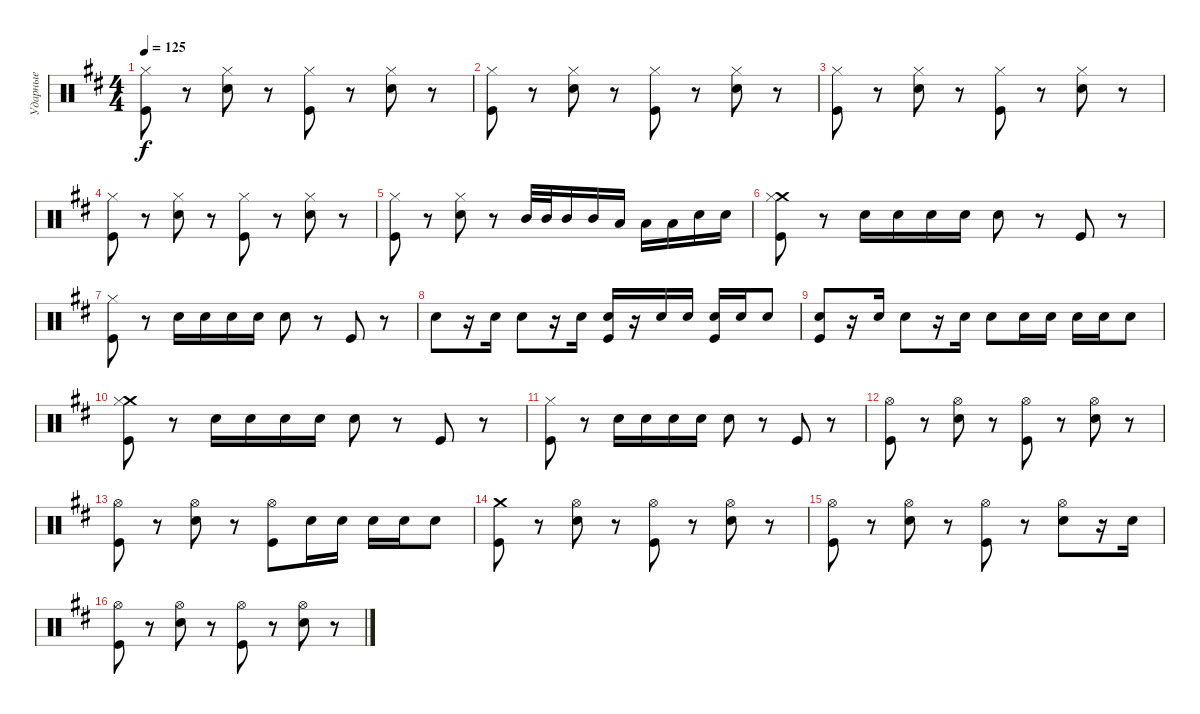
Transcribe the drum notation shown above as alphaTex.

\track ("Ударные" "Ударные") {instrument percussion}
\staff {score}
\articulation defaults
\ts (4 4)
\tempo 125
\clef neutral
\ks d
("Hi-Hat (closed)" "Kick (hit)").8{dy f} r.8 ("Hi-Hat (closed)" "Electric Snare (hit)").8 r.8 ("Hi-Hat (closed)" "Kick (hit)").8 r.8 ("Hi-Hat (closed)" "Electric Snare (hit)").8 r.8 |
("Hi-Hat (closed)" "Kick (hit)").8 r.8 ("Hi-Hat (closed)" "Electric Snare (hit)").8 r.8 ("Hi-Hat (closed)" "Kick (hit)").8 r.8 ("Hi-Hat (closed)" "Electric Snare (hit)").8 r.8 |
("Hi-Hat (closed)" "Kick (hit)").8 r.8 ("Hi-Hat (closed)" "Electric Snare (hit)").8 r.8 ("Hi-Hat (closed)" "Kick (hit)").8 r.8 ("Hi-Hat (closed)" "Electric Snare (hit)").8 r.8 |
("Hi-Hat (closed)" "Kick (hit)").8 r.8 ("Hi-Hat (closed)" "Electric Snare (hit)").8 r.8 ("Hi-Hat (closed)" "Kick (hit)").8 r.8 ("Hi-Hat (closed)" "Electric Snare (hit)").8 r.8 |
("Hi-Hat (closed)" "Kick (hit)").8 r.8 ("Hi-Hat (closed)" "Electric Snare (hit)").8 r.8 "Mid Tom (hit)".32 "Mid Tom (hit)".32 "Mid Tom (hit)".16 "Mid Tom (hit)".16 "Low Tom (hit)".16 "Low Tom (hit)".16 "Low Tom (hit)".16 "Electric Snare (hit)".16 "Electric Snare (hit)".16 |
("Crash medium (hit)" "Hi-Hat (closed)" "Kick (hit)").8 r.8 "Electric Snare (hit)".16 "Electric Snare (hit)".16 "Electric Snare (hit)".16 "Electric Snare (hit)".16 "Electric Snare (hit)".8 r.8 "Kick (hit)".8 r.8 |
("Hi-Hat (closed)" "Kick (hit)").8 r.8 "Electric Snare (hit)".16 "Electric Snare (hit)".16 "Electric Snare (hit)".16 "Electric Snare (hit)".16 "Electric Snare (hit)".8 r.8 "Kick (hit)".8 r.8 |
"Electric Snare (hit)".8 r.16 "Electric Snare (hit)".16 "Electric Snare (hit)".8 r.16 "Electric Snare (hit)".16 ("Electric Snare (hit)" "Kick (hit)").16 r.16 "Electric Snare (hit)".16 "Electric Snare (hit)".16 ("Electric Snare (hit)" "Kick (hit)").16 "Electric Snare (hit)".16 "Electric Snare (hit)".8 |
("Electric Snare (hit)" "Kick (hit)").8 r.16 "Electric Snare (hit)".16 "Electric Snare (hit)".8 r.16 "Electric Snare (hit)".16 "Electric Snare (hit)".8 "Electric Snare (hit)".16 "Electric Snare (hit)".16 "Electric Snare (hit)".16 "Electric Snare (hit)".16 "Electric Snare (hit)".8 |
("Crash medium (hit)" "Hi-Hat (closed)" "Kick (hit)").8 r.8 "Electric Snare (hit)".16 "Electric Snare (hit)".16 "Electric Snare (hit)".16 "Electric Snare (hit)".16 "Electric Snare (hit)".8 r.8 "Kick (hit)".8 r.8 |
("Hi-Hat (closed)" "Kick (hit)").8 r.8 "Electric Snare (hit)".16 "Electric Snare (hit)".16 "Electric Snare (hit)".16 "Electric Snare (hit)".16 "Electric Snare (hit)".8 r.8 "Kick (hit)".8 r.8 |
("Hi-Hat (open)" "Kick (hit)").8 r.8 ("Hi-Hat (open)" "Electric Snare (hit)").8 r.8 ("Hi-Hat (open)" "Kick (hit)").8 r.8 ("Hi-Hat (open)" "Electric Snare (hit)").8 r.8 |
("Hi-Hat (open)" "Kick (hit)").8 r.8 ("Hi-Hat (open)" "Electric Snare (hit)").8 r.8 ("Hi-Hat (open)" "Kick (hit)").8 "Electric Snare (hit)".16 "Electric Snare (hit)".16 "Electric Snare (hit)".16 "Electric Snare (hit)".16 "Electric Snare (hit)".8 |
("Crash medium (hit)" "Kick (hit)").8 r.8 ("Hi-Hat (open)" "Electric Snare (hit)").8 r.8 ("Hi-Hat (open)" "Kick (hit)").8 r.8 ("Hi-Hat (open)" "Electric Snare (hit)").8 r.8 |
("Hi-Hat (open)" "Kick (hit)").8 r.8 ("Hi-Hat (open)" "Electric Snare (hit)").8 r.8 ("Hi-Hat (open)" "Kick (hit)").8 r.8 ("Hi-Hat (open)" "Electric Snare (hit)").8 r.16 "Electric Snare (hit)".16 |
("Hi-Hat (open)" "Kick (hit)").8 r.8 ("Hi-Hat (open)" "Electric Snare (hit)").8 r.8 ("Hi-Hat (open)" "Kick (hit)").8 r.8 ("Hi-Hat (open)" "Electric Snare (hit)").8 r.8
